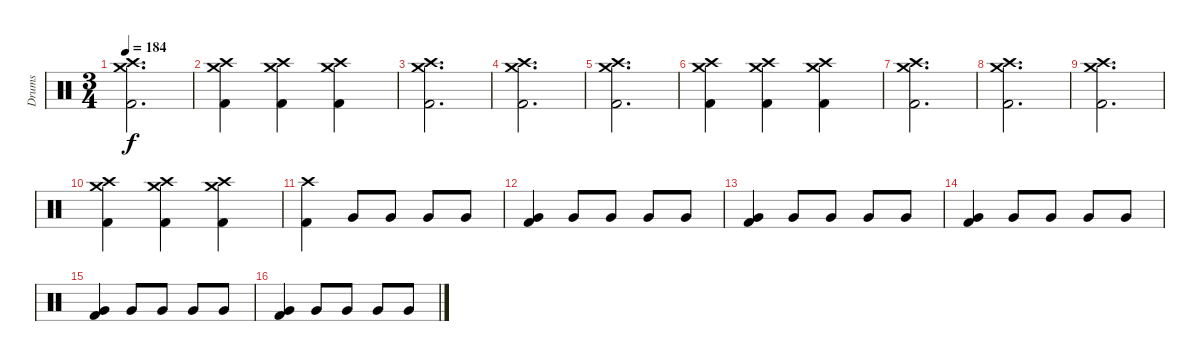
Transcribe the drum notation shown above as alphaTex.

\track ("Drums" "Drums") {instrument percussion}
\staff {score}
\articulation defaults
\ts (3 4)
\tempo 184
\clef neutral
\ks c
("Crash medium (hit)" "Crash high (hit)" "Kick (hit) 2").2{d dy f} |
("Crash medium (hit)" "Crash high (hit)" "Kick (hit) 2").4 ("Crash medium (hit)" "Crash high (hit)" "Kick (hit) 2").4 ("Crash high (hit)" "Crash medium (hit)" "Kick (hit) 2").4 |
("Crash medium (hit)" "Crash high (hit)" "Kick (hit) 2").2{d} |
("Crash medium (hit)" "Crash high (hit)" "Kick (hit) 2").2{d} |
("Crash medium (hit)" "Crash high (hit)" "Kick (hit) 2").2{d} |
("Crash medium (hit)" "Crash high (hit)" "Kick (hit) 2").4 ("Crash medium (hit)" "Crash high (hit)" "Kick (hit) 2").4 ("Crash high (hit)" "Crash medium (hit)" "Kick (hit) 2").4 |
("Crash medium (hit)" "Crash high (hit)" "Kick (hit) 2").2{d} |
("Crash medium (hit)" "Crash high (hit)" "Kick (hit) 2").2{d} |
("Crash medium (hit)" "Crash high (hit)" "Kick (hit) 2").2{d} |
("Crash medium (hit)" "Crash high (hit)" "Kick (hit) 2").4 ("Crash medium (hit)" "Crash high (hit)" "Kick (hit) 2").4 ("Crash high (hit)" "Crash medium (hit)" "Kick (hit) 2").4 |
("Crash high (hit)" "Kick (hit) 2").4 "Very Low Tom (hit)".8 "Very Low Tom (hit)".8 "Very Low Tom (hit)".8 "Very Low Tom (hit)".8 |
("Very Low Tom (hit)" "Kick (hit) 2").4 "Very Low Tom (hit)".8 "Very Low Tom (hit)".8 "Very Low Tom (hit)".8 "Very Low Tom (hit)".8 |
("Very Low Tom (hit)" "Kick (hit) 2").4 "Very Low Tom (hit)".8 "Very Low Tom (hit)".8 "Very Low Tom (hit)".8 "Very Low Tom (hit)".8 |
("Very Low Tom (hit)" "Kick (hit) 2").4 "Very Low Tom (hit)".8 "Very Low Tom (hit)".8 "Very Low Tom (hit)".8 "Very Low Tom (hit)".8 |
("Very Low Tom (hit)" "Kick (hit) 2").4 "Very Low Tom (hit)".8 "Very Low Tom (hit)".8 "Very Low Tom (hit)".8 "Very Low Tom (hit)".8 |
("Very Low Tom (hit)" "Kick (hit) 2").4 "Very Low Tom (hit)".8 "Very Low Tom (hit)".8 "Very Low Tom (hit)".8 "Very Low Tom (hit)".8
